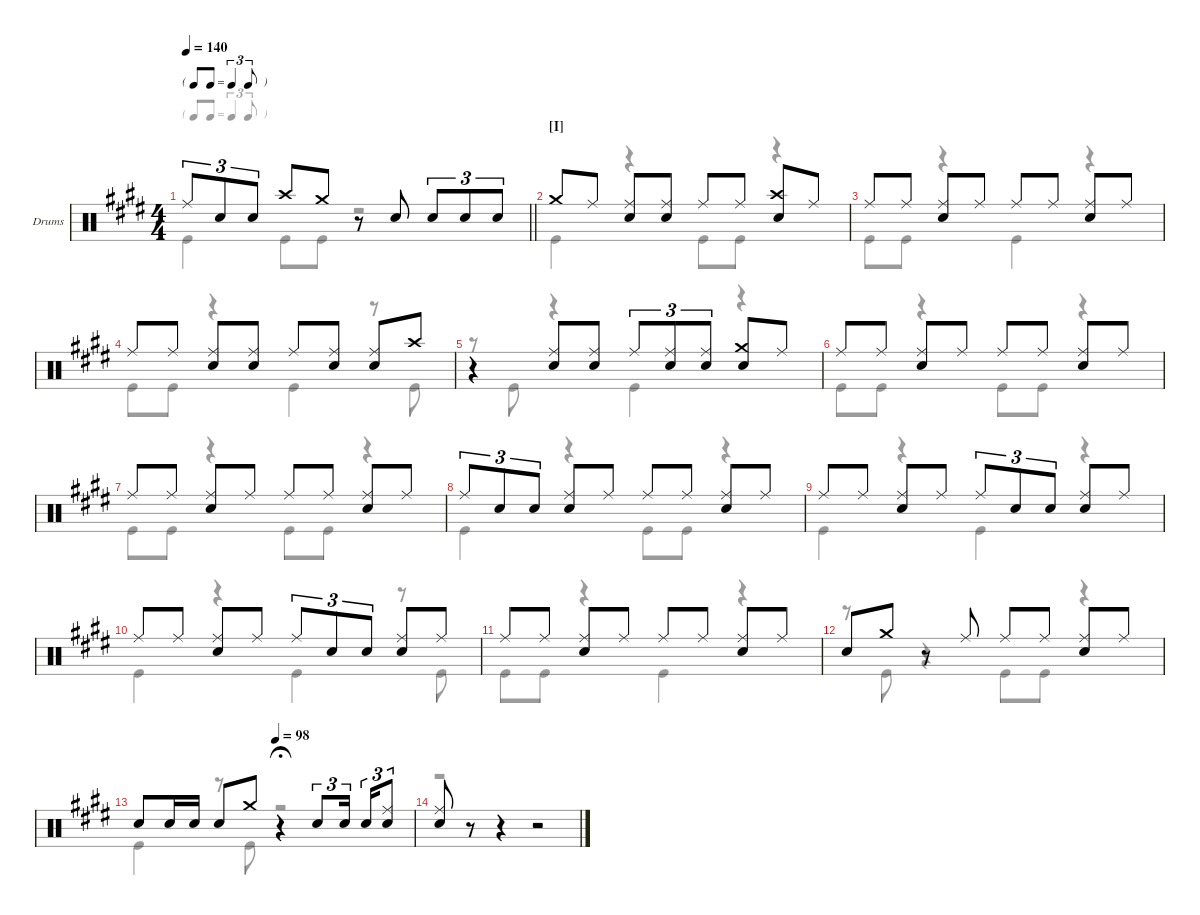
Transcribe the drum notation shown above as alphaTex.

\hideDynamics
\bracketExtendMode groupsimilarinstruments
\firstSystemTrackNameOrientation horizontal
\otherSystemsTrackNameOrientation horizontal
\track ("Drumkit" "Drums") {instrument percussion}
\staff {score}
\articulation defaults
\voice
\ts (4 4)
\tf triplet8th
\scale
0.405997
\tempo 140
\accidentals auto
\clef neutral
\ottava regular
\simile none
\barLineRight lightlight
\ks e "Ride (middle)".8{tu (3 2) dy f} "Snare (hit) 2".8{tu (3 2)} "Snare (hit) 2".8{tu (3 2)} "Crash high (hit)".8 "Crash medium (hit)".8
r.8 "Snare (hit) 2".8 "Snare (hit) 2".8{tu (3 2)} "Snare (hit) 2".8{tu (3 2)} "Snare (hit) 2".8{tu (3 2)} |
\section ("I" "")
\scale
0.281641 "Crash medium (hit)".8 "Ride (middle)".8 ("Ride (middle)" "Snare (hit) 2").8 ("Ride (middle)" "Snare (hit) 2").8 "Ride (middle)".8 "Ride (middle)".8 ("Crash high (hit)" "Snare (hit) 2").8 "Ride (middle)".8 |
\scale
0.312778 "Ride (middle)".8 "Ride (middle)".8 ("Ride (middle)" "Snare (hit) 2").8 "Ride (middle)".8 "Ride (middle)".8 "Ride (middle)".8 ("Ride (middle)" "Snare (hit) 2").8 "Ride (middle)".8 |
\scale
0.382663 "Ride (middle)".8 "Ride (middle)".8 ("Ride (middle)" "Snare (hit) 2").8 ("Ride (middle)" "Snare (hit) 2").8 "Ride (middle)".8 ("Ride (middle)" "Snare (hit) 2").8 ("Ride (middle)" "Snare (hit) 2").8 "Crash high (hit)".8 |
\scale
0.302735 r.4 ("Ride (middle)" "Snare (hit) 2").8 ("Ride (middle)" "Snare (hit) 2").8 "Ride (middle)".8{tu (3 2)} ("Ride (middle)" "Snare (hit) 2").8{tu (3 2)} ("Ride (middle)" "Snare (hit) 2").8{tu (3 2)} ("Crash medium (hit)" "Snare (hit) 2").8 "Ride (middle)".8 |
\scale
0.315014 "Ride (middle)".8 "Ride (middle)".8 ("Ride (middle)" "Snare (hit) 2").8 "Ride (middle)".8 "Ride (middle)".8 "Ride (middle)".8 ("Ride (middle)" "Snare (hit) 2").8 "Ride (middle)".8 |
\scale
0.399202 "Ride (middle)".8 "Ride (middle)".8 ("Ride (middle)" "Snare (hit) 2").8 "Ride (middle)".8 "Ride (middle)".8 "Ride (middle)".8 ("Ride (middle)" "Snare (hit) 2").8 "Ride (middle)".8 |
\scale
0.303682 "Ride (middle)".8{tu (3 2)} "Snare (hit) 2".8{tu (3 2)} "Snare (hit) 2".8{tu (3 2)} ("Ride (middle)" "Snare (hit) 2").8 "Ride (middle)".8 "Ride (middle)".8 "Ride (middle)".8 ("Ride (middle)" "Snare (hit) 2").8 "Ride (middle)".8 |
\scale
0.297722 "Ride (middle)".8 "Ride (middle)".8 ("Ride (middle)" "Snare (hit) 2").8 "Ride (middle)".8 "Ride (middle)".8{tu (3 2)} "Snare (hit) 2".8{tu (3 2)} "Snare (hit) 2".8{tu (3 2)} ("Ride (middle)" "Snare (hit) 2").8 "Ride (middle)".8 |
\scale
0.415356
\scale
0.247458 "Ride (middle)".8 "Ride (middle)".8 ("Ride (middle)" "Snare (hit) 2").8 "Ride (middle)".8 "Ride (middle)".8{tu (3 2)} "Snare (hit) 2".8{tu (3 2)} "Snare (hit) 2".8{tu (3 2)} ("Ride (middle)" "Snare (hit) 2").8 "Ride (middle)".8 |
\scale
0.291646
\scale
0.185482 "Ride (middle)".8 "Ride (middle)".8 ("Ride (middle)" "Snare (hit) 2").8 "Ride (middle)".8 "Ride (middle)".8 "Ride (middle)".8 ("Ride (middle)" "Snare (hit) 2").8 "Ride (middle)".8 |
\scale
0.296773
\scale
0.170883 "Snare (hit) 2".8 "Crash medium (hit)".8 r.8 "Ride (middle)".8 "Ride (middle)".8 "Ride (middle)".8 ("Ride (middle)" "Snare (hit) 2").8 "Ride (middle)".8 |
\scale
0.543719
\tempo (98 0.5)
\scale
0.272614 "Snare (hit) 2".8 "Snare (hit) 2".16 "Snare (hit) 2".16 "Snare (hit) 2".8 "Crash medium (hit)".8 r.4{fermata (medium 0.5)} "Snare (hit) 2".8{tu (3 2)} "Snare (hit) 2".16{tu (3 2)} "Snare (hit) 2".16{tu (3 2)} ("Ride (middle)" "Snare (hit) 2").8{tu (3 2)} |
\scale
0.456007
\scale
0.123677 ("Ride (middle)" "Snare (hit) 2").8 r.8 r.4 r.2
\voice
\clef neutral
\ottava regular
\simile none
\barLineRight lightlight
\ks e "Kick (hit)".4{dy mf} "Kick (hit)".8 "Kick (hit)".8
r.2 |
"Kick (hit)".4 r.4 "Kick (hit)".8 "Kick (hit)".8 r.4 |
"Kick (hit)".8 "Kick (hit)".8 r.4 "Kick (hit)".4 r.4 |
"Kick (hit)".8 "Kick (hit)".8 r.4 "Kick (hit)".4 r.8 "Kick (hit)".8 |
r.8 "Kick (hit)".8 r.4 "Kick (hit)".4 r.4 |
"Kick (hit)".8 "Kick (hit)".8 r.4 "Kick (hit)".8 "Kick (hit)".8 r.4 |
"Kick (hit)".8 "Kick (hit)".8 r.4 "Kick (hit)".8 "Kick (hit)".8 r.4 |
"Kick (hit)".4 r.4 "Kick (hit)".8 "Kick (hit)".8 r.4 |
"Kick (hit)".4 r.4 "Kick (hit)".4 r.4 |
\scale
0.247458 "Kick (hit)".4 r.4 "Kick (hit)".4 r.8 "Kick (hit)".8 |
\scale
0.185482 "Kick (hit)".8 "Kick (hit)".8 r.4 "Kick (hit)".4 r.4 |
\scale
0.170883 r.8 "Kick (hit)".8 r.4 "Kick (hit)".8 "Kick (hit)".8 r.4 |
\scale
0.272614 "Kick (hit)".4 r.8 "Kick (hit)".8 r.2{fermata (medium 0.5)} |
\scale
0.123677 r.1
